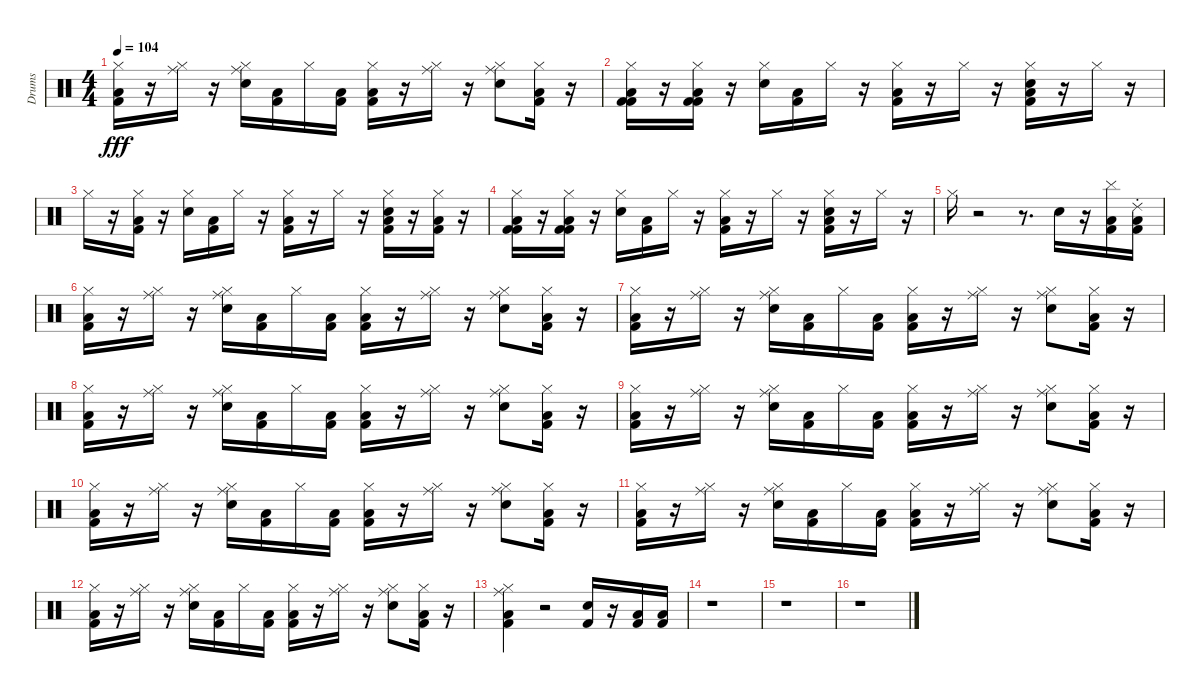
\track ("Drums" "Drums") {instrument percussion}
\staff {score}
\articulation defaults
\ts (4 4)
\tempo 104
\clef neutral
\ks c
("Low Floor Tom (hit)" "Kick (hit) 2" "Hi-Hat (closed)").16{dy fff} r.16 ("Hi-Hat (closed)" "Ride (middle)").16 r.16 ("Hi-Hat (closed)" "Ride (middle)" "Electric Snare (hit)").16 ("Low Floor Tom (hit)" "Kick (hit) 2").16 "Hi-Hat (closed)".16 ("Low Floor Tom (hit)" "Kick (hit) 2").16 ("Hi-Hat (closed)" "Kick (hit) 2" "Low Floor Tom (hit)").16 r.16 ("Ride (middle)" "Hi-Hat (closed)").16 r.16 ("Hi-Hat (closed)" "Electric Snare (hit)" "Ride (middle)").8 ("Hi-Hat (closed)" "Low Floor Tom (hit)" "Kick (hit) 2").16 r.16 |
("Kick (hit) 2" "Hi-Hat (closed)" "Kick (hit) 2" "Low Floor Tom (hit)").16 r.16 ("Low Floor Tom (hit)" "Kick (hit) 2" "Kick (hit) 2" "Hi-Hat (closed)").16 r.16 ("Hi-Hat (closed)" "Electric Snare (hit)").16 ("Kick (hit) 2" "Low Floor Tom (hit)").16 "Hi-Hat (closed)".16 r.16 ("Hi-Hat (closed)" "Low Floor Tom (hit)" "Kick (hit) 2").16 r.16 "Hi-Hat (closed)".16 r.16 ("Electric Snare (hit)" "Kick (hit) 2" "Hi-Hat (closed)" "Low Floor Tom (hit)").16 r.16 "Hi-Hat (closed)".16 r.16 |
"Hi-Hat (closed)".16 r.16 ("Kick (hit) 2" "Hi-Hat (closed)" "Low Floor Tom (hit)").16 r.16 ("Electric Snare (hit)" "Hi-Hat (closed)").16 ("Low Floor Tom (hit)" "Kick (hit) 2").16 "Hi-Hat (closed)".16 r.16 ("Hi-Hat (closed)" "Kick (hit) 2" "Low Floor Tom (hit)").16 r.16 "Hi-Hat (closed)".16 r.16 ("Low Floor Tom (hit)" "Hi-Hat (closed)" "Kick (hit) 2" "Electric Snare (hit)").16 r.16 ("Low Floor Tom (hit)" "Kick (hit) 2" "Hi-Hat (closed)").16 r.16 |
("Hi-Hat (closed)" "Low Floor Tom (hit)" "Kick (hit) 2" "Kick (hit) 2").16 r.16 ("Kick (hit) 2" "Hi-Hat (closed)" "Kick (hit) 2" "Low Floor Tom (hit)").16 r.16 ("Electric Snare (hit)" "Hi-Hat (closed)").16 ("Kick (hit) 2" "Low Floor Tom (hit)").16 "Hi-Hat (closed)".16 r.16 ("Hi-Hat (closed)" "Low Floor Tom (hit)" "Kick (hit) 2").16 r.16 "Hi-Hat (closed)".16 r.16 ("Low Floor Tom (hit)" "Kick (hit) 2" "Hi-Hat (closed)" "Electric Snare (hit)").16 r.16 "Hi-Hat (closed)".16 r.16 |
"Hi-Hat (closed)".16 r.2 r.8{d} "Electric Snare (hit)".16 r.16 ("Low Floor Tom (hit)" "Cymbal (hit)" "Kick (hit) 2").16 ("Ride (choke) 2" "Kick (hit) 2" "Low Floor Tom (hit)").16 |
("Hi-Hat (closed)" "Low Floor Tom (hit)" "Kick (hit) 2").16 r.16 ("Ride (middle)" "Hi-Hat (closed)").16 r.16 ("Electric Snare (hit)" "Ride (middle)" "Hi-Hat (closed)").16 ("Kick (hit) 2" "Low Floor Tom (hit)").16 "Hi-Hat (closed)".16 ("Low Floor Tom (hit)" "Kick (hit) 2").16 ("Hi-Hat (closed)" "Kick (hit) 2" "Low Floor Tom (hit)").16 r.16 ("Ride (middle)" "Hi-Hat (closed)").16 r.16 ("Electric Snare (hit)" "Hi-Hat (closed)" "Ride (middle)").8 ("Kick (hit) 2" "Hi-Hat (closed)" "Low Floor Tom (hit)").16 r.16 |
("Hi-Hat (closed)" "Kick (hit) 2" "Low Floor Tom (hit)").16 r.16 ("Hi-Hat (closed)" "Ride (middle)").16 r.16 ("Electric Snare (hit)" "Hi-Hat (closed)" "Ride (middle)").16 ("Low Floor Tom (hit)" "Kick (hit) 2").16 "Hi-Hat (closed)".16 ("Low Floor Tom (hit)" "Kick (hit) 2").16 ("Low Floor Tom (hit)" "Hi-Hat (closed)" "Kick (hit) 2").16 r.16 ("Hi-Hat (closed)" "Ride (middle)").16 r.16 ("Ride (middle)" "Electric Snare (hit)" "Hi-Hat (closed)").8 ("Kick (hit) 2" "Low Floor Tom (hit)" "Hi-Hat (closed)").16 r.16 |
("Kick (hit) 2" "Hi-Hat (closed)" "Low Floor Tom (hit)").16 r.16 ("Hi-Hat (closed)" "Ride (middle)").16 r.16 ("Electric Snare (hit)" "Hi-Hat (closed)" "Ride (middle)").16 ("Low Floor Tom (hit)" "Kick (hit) 2").16 "Hi-Hat (closed)".16 ("Low Floor Tom (hit)" "Kick (hit) 2").16 ("Low Floor Tom (hit)" "Kick (hit) 2" "Hi-Hat (closed)").16 r.16 ("Hi-Hat (closed)" "Ride (middle)").16 r.16 ("Hi-Hat (closed)" "Ride (middle)" "Electric Snare (hit)").8 ("Low Floor Tom (hit)" "Hi-Hat (closed)" "Kick (hit) 2").16 r.16 |
("Low Floor Tom (hit)" "Hi-Hat (closed)" "Kick (hit) 2").16 r.16 ("Hi-Hat (closed)" "Ride (middle)").16 r.16 ("Ride (middle)" "Hi-Hat (closed)" "Electric Snare (hit)").16 ("Low Floor Tom (hit)" "Kick (hit) 2").16 "Hi-Hat (closed)".16 ("Kick (hit) 2" "Low Floor Tom (hit)").16 ("Kick (hit) 2" "Hi-Hat (closed)" "Low Floor Tom (hit)").16 r.16 ("Hi-Hat (closed)" "Ride (middle)").16 r.16 ("Electric Snare (hit)" "Ride (middle)" "Hi-Hat (closed)").8 ("Low Floor Tom (hit)" "Hi-Hat (closed)" "Kick (hit) 2").16 r.16 |
("Low Floor Tom (hit)" "Hi-Hat (closed)" "Kick (hit) 2").16 r.16 ("Hi-Hat (closed)" "Ride (middle)").16 r.16 ("Electric Snare (hit)" "Hi-Hat (closed)" "Ride (middle)").16 ("Kick (hit) 2" "Low Floor Tom (hit)").16 "Hi-Hat (closed)".16 ("Kick (hit) 2" "Low Floor Tom (hit)").16 ("Low Floor Tom (hit)" "Hi-Hat (closed)" "Kick (hit) 2").16 r.16 ("Ride (middle)" "Hi-Hat (closed)").16 r.16 ("Electric Snare (hit)" "Hi-Hat (closed)" "Ride (middle)").8 ("Hi-Hat (closed)" "Kick (hit) 2" "Low Floor Tom (hit)").16 r.16 |
("Kick (hit) 2" "Low Floor Tom (hit)" "Hi-Hat (closed)").16 r.16 ("Ride (middle)" "Hi-Hat (closed)").16 r.16 ("Electric Snare (hit)" "Ride (middle)" "Hi-Hat (closed)").16 ("Kick (hit) 2" "Low Floor Tom (hit)").16 "Hi-Hat (closed)".16 ("Low Floor Tom (hit)" "Kick (hit) 2").16 ("Low Floor Tom (hit)" "Hi-Hat (closed)" "Kick (hit) 2").16 r.16 ("Hi-Hat (closed)" "Ride (middle)").16 r.16 ("Electric Snare (hit)" "Ride (middle)" "Hi-Hat (closed)").8 ("Low Floor Tom (hit)" "Hi-Hat (closed)" "Kick (hit) 2").16 r.16 |
("Low Floor Tom (hit)" "Hi-Hat (closed)" "Kick (hit) 2").16 r.16 ("Ride (middle)" "Hi-Hat (closed)").16 r.16 ("Electric Snare (hit)" "Hi-Hat (closed)" "Ride (middle)").16 ("Kick (hit) 2" "Low Floor Tom (hit)").16 "Hi-Hat (closed)".16 ("Low Floor Tom (hit)" "Kick (hit) 2").16 ("Kick (hit) 2" "Low Floor Tom (hit)" "Hi-Hat (closed)").16 r.16 ("Hi-Hat (closed)" "Ride (middle)").16 r.16 ("Hi-Hat (closed)" "Electric Snare (hit)" "Ride (middle)").8 ("Hi-Hat (closed)" "Low Floor Tom (hit)" "Kick (hit) 2").16 r.16 |
("Ride (middle)" "Low Floor Tom (hit)" "Hi-Hat (closed)" "Kick (hit) 2").4 r.2 ("Kick (hit) 2" "Electric Snare (hit)").16 r.16 ("Kick (hit) 2" "Low Floor Tom (hit)").16 ("Kick (hit) 2" "Low Floor Tom (hit)").16 |
r.1 |
r.1 |
r.1
